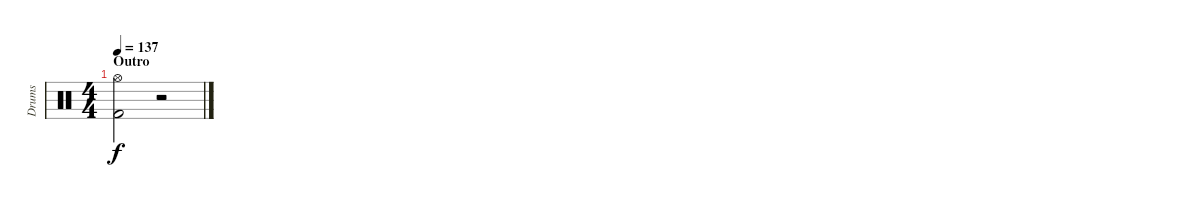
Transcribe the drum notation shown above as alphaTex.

\track ("Drums" "Drums") {instrument percussion}
\staff {score}
\articulation defaults
\ts (4 4)
\section ("" "Outro ")
\tempo 137
\clef neutral
\ks c
("Hi-Hat (open)" "Kick (hit) 2").2{dy f} r.2
